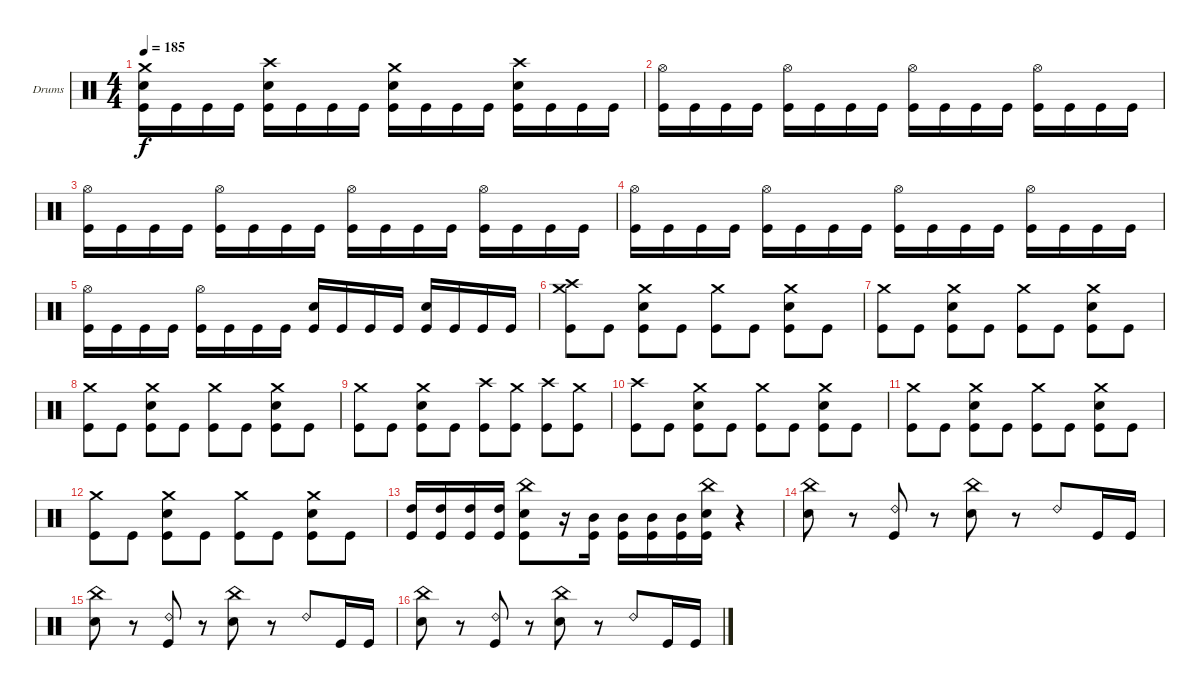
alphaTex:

\bracketExtendMode groupsimilarinstruments
\firstSystemTrackNameOrientation horizontal
\otherSystemsTrackNameOrientation horizontal
\track ("Drumkit" "Drums") {instrument percussion}
\staff {score}
\articulation defaults
\ts (4 4)
\tempo 185
\clef neutral
\ks c
("Crash medium (hit)" "Snare (hit) 2" "Kick (hit)").16{dy f} "Kick (hit)".16 "Kick (hit)".16 "Kick (hit)".16 ("Crash high (hit)" "Snare (hit) 2" "Kick (hit)").16 "Kick (hit)".16 "Kick (hit)".16 "Kick (hit)".16 ("Crash medium (hit)" "Snare (hit) 2" "Kick (hit)").16 "Kick (hit)".16 "Kick (hit)".16 "Kick (hit)".16 ("Crash high (hit)" "Snare (hit) 2" "Kick (hit)").16 "Kick (hit)".16 "Kick (hit)".16 "Kick (hit)".16 |
("Hi-Hat (open)" "Kick (hit)").16 "Kick (hit)".16 "Kick (hit)".16 "Kick (hit)".16 ("Hi-Hat (open)" "Kick (hit)").16 "Kick (hit)".16 "Kick (hit)".16 "Kick (hit)".16 ("Hi-Hat (open)" "Kick (hit)").16 "Kick (hit)".16 "Kick (hit)".16 "Kick (hit)".16 ("Hi-Hat (open)" "Kick (hit)").16 "Kick (hit)".16 "Kick (hit)".16 "Kick (hit)".16 |
("Hi-Hat (open)" "Kick (hit)").16 "Kick (hit)".16 "Kick (hit)".16 "Kick (hit)".16 ("Hi-Hat (open)" "Kick (hit)").16 "Kick (hit)".16 "Kick (hit)".16 "Kick (hit)".16 ("Hi-Hat (open)" "Kick (hit)").16 "Kick (hit)".16 "Kick (hit)".16 "Kick (hit)".16 ("Hi-Hat (open)" "Kick (hit)").16 "Kick (hit)".16 "Kick (hit)".16 "Kick (hit)".16 |
("Hi-Hat (open)" "Kick (hit)").16 "Kick (hit)".16 "Kick (hit)".16 "Kick (hit)".16 ("Hi-Hat (open)" "Kick (hit)").16 "Kick (hit)".16 "Kick (hit)".16 "Kick (hit)".16 ("Hi-Hat (open)" "Kick (hit)").16 "Kick (hit)".16 "Kick (hit)".16 "Kick (hit)".16 ("Hi-Hat (open)" "Kick (hit)").16 "Kick (hit)".16 "Kick (hit)".16 "Kick (hit)".16 |
("Hi-Hat (open)" "Kick (hit)").16 "Kick (hit)".16 "Kick (hit)".16 "Kick (hit)".16 ("Hi-Hat (open)" "Kick (hit)").16 "Kick (hit)".16 "Kick (hit)".16 "Kick (hit)".16 ("Snare (hit) 2" "Kick (hit)").16 "Kick (hit)".16 "Kick (hit)".16 "Kick (hit)".16 ("Snare (hit) 2" "Kick (hit)").16 "Kick (hit)".16 "Kick (hit)".16 "Kick (hit)".16 |
("Crash medium (hit)" "Crash high (hit)" "Kick (hit)").8 "Kick (hit)".8 ("Crash medium (hit)" "Snare (hit) 2" "Kick (hit)").8 "Kick (hit)".8 ("Crash medium (hit)" "Kick (hit)").8 "Kick (hit)".8 ("Crash medium (hit)" "Snare (hit) 2" "Kick (hit)").8 "Kick (hit)".8 |
("Crash medium (hit)" "Kick (hit)").8 "Kick (hit)".8 ("Crash medium (hit)" "Snare (hit) 2" "Kick (hit)").8 "Kick (hit)".8 ("Crash medium (hit)" "Kick (hit)").8 "Kick (hit)".8 ("Crash medium (hit)" "Snare (hit) 2" "Kick (hit)").8 "Kick (hit)".8 |
("Crash medium (hit)" "Kick (hit)").8 "Kick (hit)".8 ("Crash medium (hit)" "Snare (hit) 2" "Kick (hit)").8 "Kick (hit)".8 ("Crash medium (hit)" "Kick (hit)").8 "Kick (hit)".8 ("Crash medium (hit)" "Snare (hit) 2" "Kick (hit)").8 "Kick (hit)".8 |
("Crash medium (hit)" "Kick (hit)").8 "Kick (hit)".8 ("Crash medium (hit)" "Snare (hit) 2" "Kick (hit)").8 "Kick (hit)".8 ("Crash high (hit)" "Kick (hit)").8 ("Crash medium (hit)" "Kick (hit)").8 ("Crash high (hit)" "Kick (hit)").8 ("Crash medium (hit)" "Kick (hit)").8 |
("Crash high (hit)" "Kick (hit)").8 "Kick (hit)".8 ("Crash medium (hit)" "Snare (hit) 2" "Kick (hit)").8 "Kick (hit)".8 ("Crash medium (hit)" "Kick (hit)").8 "Kick (hit)".8 ("Crash medium (hit)" "Snare (hit) 2" "Kick (hit)").8 "Kick (hit)".8 |
("Crash medium (hit)" "Kick (hit)").8 "Kick (hit)".8 ("Crash medium (hit)" "Snare (hit) 2" "Kick (hit)").8 "Kick (hit)".8 ("Crash medium (hit)" "Kick (hit)").8 "Kick (hit)".8 ("Crash medium (hit)" "Snare (hit) 2" "Kick (hit)").8 "Kick (hit)".8 |
("Crash medium (hit)" "Kick (hit)").8 "Kick (hit)".8 ("Crash medium (hit)" "Snare (hit) 2" "Kick (hit)").8 "Kick (hit)".8 ("Crash medium (hit)" "Kick (hit)").8 "Kick (hit)".8 ("Crash medium (hit)" "Snare (hit) 2" "Kick (hit)").8 "Kick (hit)".8 |
("High Tom (hit)" "Kick (hit)").16 ("High Tom (hit)" "Kick (hit)").16 ("High Tom (hit)" "Kick (hit)").16 ("High Tom (hit)" "Kick (hit)").16 ("China (hit)" "Snare (hit) 2" "Kick (hit)").8 r.16 ("Mid Tom (hit)" "Kick (hit)").16 ("Mid Tom (hit)" "Kick (hit)").16 ("Mid Tom (hit)" "Kick (hit)").16 ("Mid Tom (hit)" "Kick (hit)").16 ("China (hit)" "Snare (hit) 2" "Kick (hit)").16 r.4 |
("China (hit)" "Snare (hit) 2").8 r.8 ("Ride (bell) 2" "Kick (hit)").8 r.8 ("China (hit)" "Snare (hit) 2").8 r.8 "Ride (bell) 2".8 "Kick (hit)".16 "Kick (hit)".16 |
("China (hit)" "Snare (hit) 2").8 r.8 ("Ride (bell) 2" "Kick (hit)").8 r.8 ("China (hit)" "Snare (hit) 2").8 r.8 "Ride (bell) 2".8 "Kick (hit)".16 "Kick (hit)".16 |
("China (hit)" "Snare (hit) 2").8 r.8 ("Ride (bell) 2" "Kick (hit)").8 r.8 ("China (hit)" "Snare (hit) 2").8 r.8 "Ride (bell) 2".8 "Kick (hit)".16 "Kick (hit)".16
